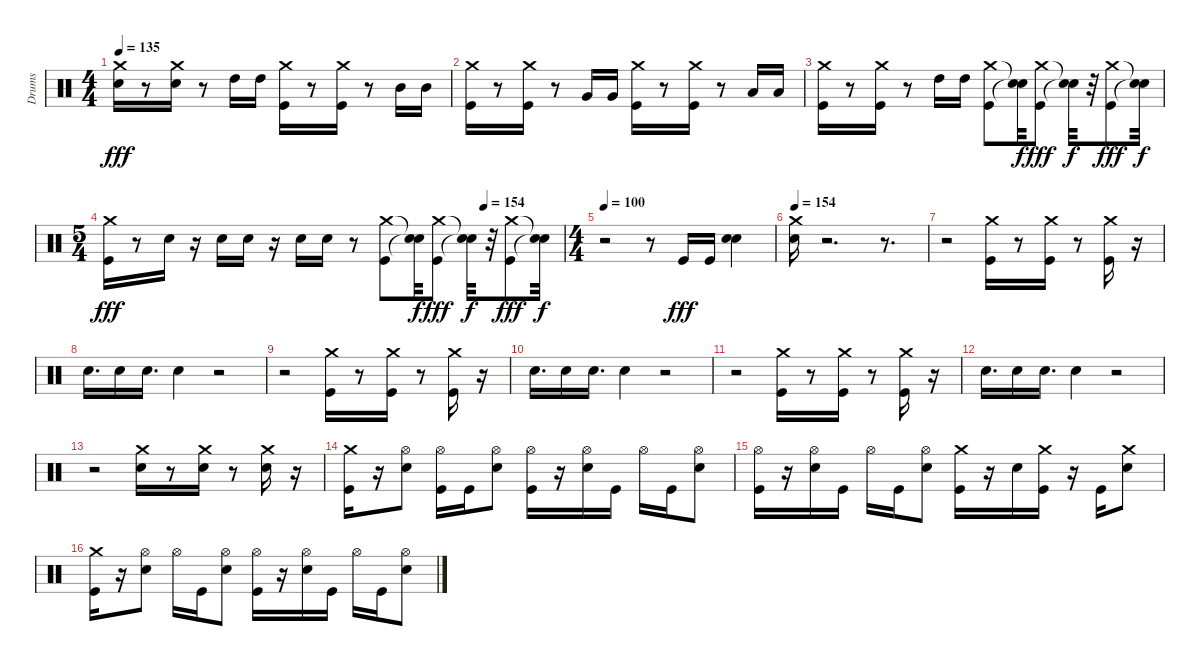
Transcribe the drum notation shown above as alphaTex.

\track ("Drums" "Drums") {instrument percussion}
\staff {score}
\articulation defaults
\ts (4 4)
\tempo 135
\clef neutral
\ks c
("Crash medium (hit)" "Snare (hit) 2").16{dy fff} r.8 ("Snare (hit) 2" "Crash medium (hit)").16 r.8 "High Tom (hit)".16 "High Tom (hit)".16 ("Crash medium (hit)" "Kick (hit)").16 r.8 ("Crash medium (hit)" "Kick (hit)").16 r.8 "Mid Tom (hit)".16 "Mid Tom (hit)".16 |
("Crash medium (hit)" "Kick (hit)").16 r.8 ("Crash medium (hit)" "Kick (hit)").16 r.8 "Very Low Tom (hit)".16 "Very Low Tom (hit)".16 ("Crash medium (hit)" "Kick (hit)").16 r.8 ("Crash medium (hit)" "Kick (hit)").16 r.8 "Low Tom (hit)".16 "Low Tom (hit)".16 |
("Crash medium (hit)" "Kick (hit)").16 r.8 ("Crash medium (hit)" "Kick (hit)").16 r.8 "High Tom (hit)".16 "High Tom (hit)".16 ("Kick (hit)" "Crash medium (hit)").8 ("Snare (hit)"{t} "Snare (hit)"{t}).32{dy f} ("Kick (hit)" "Crash medium (hit)").8{dy fff} ("Snare (hit)"{t} "Snare (hit)"{t}).32{dy f} r.32 ("Kick (hit)" "Crash medium (hit)").8{dy fff} ("Snare (hit)"{t} "Snare (hit)"{t}).32{dy f} |
\ts (5 4)
\tempo (154 0.825)
("Crash medium (hit)" "Kick (hit)").16{dy fff} r.8 "Snare (hit) 2".16 r.16 "Snare (hit) 2".16 "Snare (hit) 2".16 r.16 "Snare (hit) 2".16 "Snare (hit) 2".16 r.8 ("Kick (hit)" "Crash medium (hit)").8 ("Snare (hit)"{t} "Snare (hit)"{t}).32{dy f} ("Kick (hit)" "Crash medium (hit)").8{dy fff} ("Snare (hit)"{t} "Snare (hit)"{t}).32{dy f} r.32 ("Crash medium (hit)" "Kick (hit)").8{dy fff} ("Snare (hit)"{t} "Snare (hit)"{t}).32{dy f} |
\ts (4 4)
\tempo 100
r.2 r.8 "Kick (hit)".16{dy fff} "Kick (hit)".16 ("Snare (hit) 2" "Snare (hit) 2").4 |
\tempo 154
("Crash medium (hit)" "Snare (hit) 2").16 r.2{d} r.8{d} |
r.2 ("Crash medium (hit)" "Kick (hit)").16 r.8 ("Crash medium (hit)" "Kick (hit)").16 r.8 ("Crash medium (hit)" "Kick (hit)").16 r.16 |
"Snare (hit) 2".16{d} "Snare (hit) 2".16 "Snare (hit) 2".16{d} "Snare (hit) 2".4 r.2 |
r.2 ("Crash medium (hit)" "Kick (hit)").16 r.8 ("Kick (hit)" "Crash medium (hit)").16 r.8 ("Crash medium (hit)" "Kick (hit)").16 r.16 |
"Snare (hit) 2".16{d} "Snare (hit) 2".16 "Snare (hit) 2".16{d} "Snare (hit) 2".4 r.2 |
r.2 ("Crash medium (hit)" "Kick (hit)").16 r.8 ("Kick (hit)" "Crash medium (hit)").16 r.8 ("Crash medium (hit)" "Kick (hit)").16 r.16 |
"Snare (hit) 2".16{d} "Snare (hit) 2".16 "Snare (hit) 2".16{d} "Snare (hit) 2".4 r.2 |
r.2 ("Snare (hit) 2" "Crash medium (hit)").16 r.8 ("Snare (hit) 2" "Crash medium (hit)").16 r.8 ("Snare (hit) 2" "Crash medium (hit)").16 r.16 |
("Kick (hit)" "Crash medium (hit)").16 r.16 ("Snare (hit) 2" "Hi-Hat (open)").8 ("Kick (hit)" "Hi-Hat (open)").16 "Kick (hit)".16 ("Snare (hit) 2" "Hi-Hat (open)").8 ("Kick (hit)" "Hi-Hat (open)").16 r.16 ("Snare (hit) 2" "Hi-Hat (open)").16 "Kick (hit)".16 "Hi-Hat (open)".16 "Kick (hit)".16 ("Snare (hit) 2" "Hi-Hat (open)").8 |
("Hi-Hat (open)" "Kick (hit)").16 r.16 ("Snare (hit) 2" "Hi-Hat (open)").16 "Kick (hit)".16 "Hi-Hat (open)".16 "Kick (hit)".16 ("Snare (hit) 2" "Hi-Hat (open)").8 ("Crash medium (hit)" "Kick (hit)").16 r.16 "Snare (hit) 2".16 ("Crash medium (hit)" "Kick (hit)").16 r.16 "Kick (hit)".16 ("Crash medium (hit)" "Snare (hit) 2").8 |
("Kick (hit)" "Crash medium (hit)").16 r.16 ("Snare (hit) 2" "Hi-Hat (open)").8 "Hi-Hat (open)".16 "Kick (hit)".16 ("Snare (hit) 2" "Hi-Hat (open)").8 ("Kick (hit)" "Hi-Hat (open)").16 r.16 ("Snare (hit) 2" "Hi-Hat (open)").16 "Kick (hit)".16 "Hi-Hat (open)".16 "Kick (hit)".16 ("Snare (hit) 2" "Hi-Hat (open)").8
